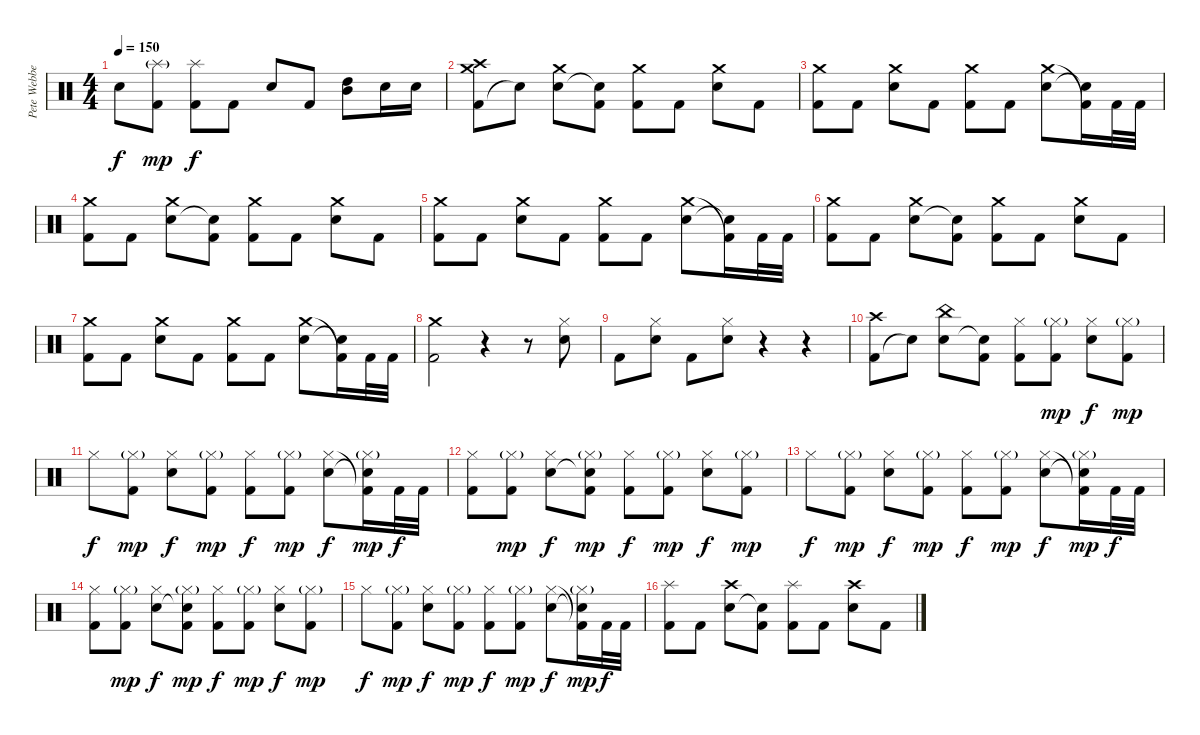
\track ("Pete Webber" "Pete Webbe") {instrument percussion}
\staff {score}
\articulation defaults
\ts (4 4)
\tempo 150
\clef neutral
\ks c "Electric Snare (hit)".8{dy f}
("Kick (hit) 2" "Splash (hit)"{g}).8{dy mp} ("Kick (hit) 2" "Splash (hit)").8{dy f} "Kick (hit) 2".8 "Electric Snare (hit)".8 "Kick (hit) 2".8 ("Mid Tom (hit)" "High Tom (hit)").8 "Electric Snare (hit)".16 "Electric Snare (hit)".16 |
("Kick (hit) 2" "Crash high (hit)" "Crash medium (hit)").8 "Snare (hit)"{t}.8 ("Electric Snare (hit)" "Crash medium (hit)").8 ("Snare (hit)"{t} "Kick (hit) 2").8 ("Kick (hit) 2" "Crash medium (hit)").8 "Kick (hit) 2".8 ("Electric Snare (hit)" "Crash medium (hit)").8 "Kick (hit) 2".8 |
("Kick (hit) 2" "Crash medium (hit)").8 "Kick (hit) 2".8 ("Electric Snare (hit)" "Crash medium (hit)").8 "Kick (hit) 2".8 ("Kick (hit) 2" "Crash medium (hit)").8 "Kick (hit) 2".8 ("Electric Snare (hit)" "Crash medium (hit)").8 ("Snare (hit)"{t} "Kick (hit) 2"{t}).16 "Kick (hit) 2".32 "Kick (hit) 2".32 |
("Kick (hit) 2" "Crash medium (hit)").8 "Kick (hit) 2".8 ("Electric Snare (hit)" "Crash medium (hit)").8 ("Snare (hit)"{t} "Kick (hit) 2").8 ("Kick (hit) 2" "Crash medium (hit)").8 "Kick (hit) 2".8 ("Electric Snare (hit)" "Crash medium (hit)").8 "Kick (hit) 2".8 |
("Kick (hit) 2" "Crash medium (hit)").8 "Kick (hit) 2".8 ("Electric Snare (hit)" "Crash medium (hit)").8 "Kick (hit) 2".8 ("Kick (hit) 2" "Crash medium (hit)").8 "Kick (hit) 2".8 ("Electric Snare (hit)" "Crash medium (hit)").8 ("Snare (hit)"{t} "Kick (hit) 2"{t}).16 "Kick (hit) 2".32 "Kick (hit) 2".32 |
("Kick (hit) 2" "Crash medium (hit)").8 "Kick (hit) 2".8 ("Electric Snare (hit)" "Crash medium (hit)").8 ("Snare (hit)"{t} "Kick (hit) 2").8 ("Kick (hit) 2" "Crash medium (hit)").8 "Kick (hit) 2".8 ("Electric Snare (hit)" "Crash medium (hit)").8 "Kick (hit) 2".8 |
("Kick (hit) 2" "Crash medium (hit)").8 "Kick (hit) 2".8 ("Electric Snare (hit)" "Crash medium (hit)").8 "Kick (hit) 2".8 ("Kick (hit) 2" "Crash medium (hit)").8 "Kick (hit) 2".8 ("Electric Snare (hit)" "Crash medium (hit)").8 ("Snare (hit)"{t} "Kick (hit) 2"{t}).16 "Kick (hit) 2".32 "Kick (hit) 2".32 |
("Kick (hit) 2" "Crash medium (hit)").2 r.4 r.8 ("Hi-Hat (closed)" "Electric Snare (hit)").8 |
"Kick (hit) 2".8 ("Hi-Hat (closed)" "Electric Snare (hit)").8 "Kick (hit) 2".8 ("Hi-Hat (closed)" "Electric Snare (hit)").8 r.4 r.4 |
("Kick (hit) 2" "Crash high (hit)").8 "Snare (hit)"{t}.8 ("Electric Snare (hit)" "China (hit)").8 ("Snare (hit)"{t} "Kick (hit) 2").8 ("Kick (hit) 2" "Hi-Hat (closed)").8 ("Kick (hit) 2" "Hi-Hat (closed)"{g}).8{dy mp} ("Electric Snare (hit)" "Hi-Hat (closed)").8{dy f} ("Kick (hit) 2" "Hi-Hat (closed)"{g}).8{dy mp} |
"Hi-Hat (closed)".8{dy f} ("Kick (hit) 2" "Hi-Hat (closed)"{g}).8{dy mp} ("Electric Snare (hit)" "Hi-Hat (closed)").8{dy f} ("Kick (hit) 2" "Hi-Hat (closed)"{g}).8{dy mp} ("Kick (hit) 2" "Hi-Hat (closed)").8{dy f} ("Kick (hit) 2" "Hi-Hat (closed)"{g}).8{dy mp} ("Electric Snare (hit)" "Hi-Hat (closed)").8{dy f} ("Snare (hit)"{t} "Kick (hit) 2"{t} "Hi-Hat (closed)"{g}).16{dy mp} "Kick (hit) 2".32{dy f} "Kick (hit) 2".32 |
("Kick (hit) 2" "Hi-Hat (closed)").8 ("Kick (hit) 2" "Hi-Hat (closed)"{g}).8{dy mp} ("Electric Snare (hit)" "Hi-Hat (closed)").8{dy f} ("Snare (hit)"{t} "Kick (hit) 2" "Hi-Hat (closed)"{g}).8{dy mp} ("Kick (hit) 2" "Hi-Hat (closed)").8{dy f} ("Kick (hit) 2" "Hi-Hat (closed)"{g}).8{dy mp} ("Electric Snare (hit)" "Hi-Hat (closed)").8{dy f} ("Kick (hit) 2" "Hi-Hat (closed)"{g}).8{dy mp} |
"Hi-Hat (closed)".8{dy f} ("Kick (hit) 2" "Hi-Hat (closed)"{g}).8{dy mp} ("Electric Snare (hit)" "Hi-Hat (closed)").8{dy f} ("Kick (hit) 2" "Hi-Hat (closed)"{g}).8{dy mp} ("Kick (hit) 2" "Hi-Hat (closed)").8{dy f} ("Kick (hit) 2" "Hi-Hat (closed)"{g}).8{dy mp} ("Electric Snare (hit)" "Hi-Hat (closed)").8{dy f} ("Snare (hit)"{t} "Kick (hit) 2"{t} "Hi-Hat (closed)"{g}).16{dy mp} "Kick (hit) 2".32{dy f} "Kick (hit) 2".32 |
("Kick (hit) 2" "Hi-Hat (closed)").8 ("Kick (hit) 2" "Hi-Hat (closed)"{g}).8{dy mp} ("Electric Snare (hit)" "Hi-Hat (closed)").8{dy f} ("Snare (hit)"{t} "Kick (hit) 2" "Hi-Hat (closed)"{g}).8{dy mp} ("Kick (hit) 2" "Hi-Hat (closed)").8{dy f} ("Kick (hit) 2" "Hi-Hat (closed)"{g}).8{dy mp} ("Electric Snare (hit)" "Hi-Hat (closed)").8{dy f} ("Kick (hit) 2" "Hi-Hat (closed)"{g}).8{dy mp} |
"Hi-Hat (closed)".8{dy f} ("Kick (hit) 2" "Hi-Hat (closed)"{g}).8{dy mp} ("Electric Snare (hit)" "Hi-Hat (closed)").8{dy f} ("Kick (hit) 2" "Hi-Hat (closed)"{g}).8{dy mp} ("Kick (hit) 2" "Hi-Hat (closed)").8{dy f} ("Kick (hit) 2" "Hi-Hat (closed)"{g}).8{dy mp} ("Electric Snare (hit)" "Hi-Hat (closed)").8{dy f} ("Snare (hit)"{t} "Kick (hit) 2"{t} "Hi-Hat (closed)"{g}).16{dy mp} "Kick (hit) 2".32{dy f} "Kick (hit) 2".32 |
("Kick (hit) 2" "Splash (hit)").8 "Kick (hit) 2".8 ("Electric Snare (hit)" "Crash high (hit)").8 ("Snare (hit)"{t} "Kick (hit) 2").8 ("Kick (hit) 2" "Splash (hit)").8 "Kick (hit) 2".8 ("Electric Snare (hit)" "Crash high (hit)").8 "Kick (hit) 2".8
